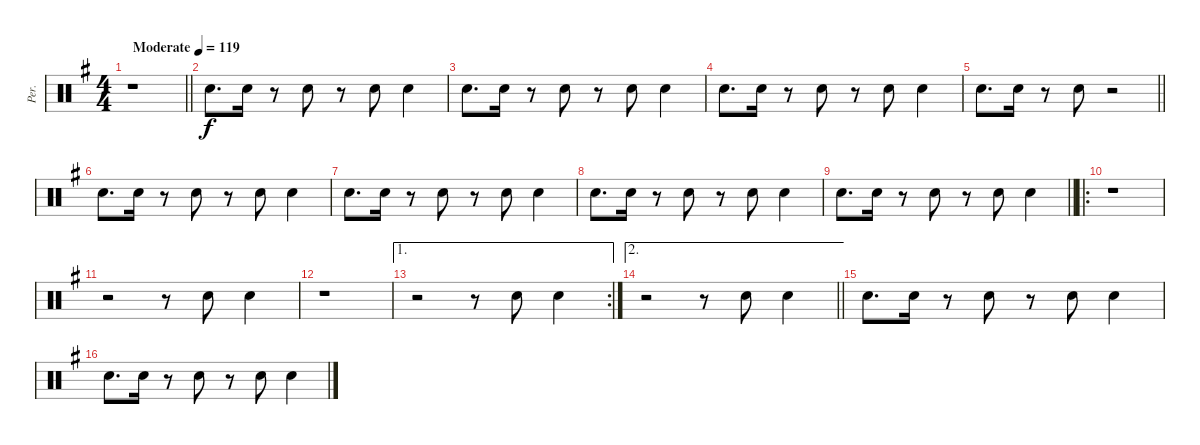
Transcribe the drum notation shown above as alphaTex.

\track ("Per." "Per.") {instrument percussion}
\staff {score}
\articulation defaults
\ts (4 4)
\tempo (119 "Moderate")
\clef neutral
\barLineRight lightlight
\ks eminor
r.1{dy f} |
"Hand Clap (hit)".8{d} "Hand Clap (hit)".16 r.8 "Hand Clap (hit)".8 r.8 "Hand Clap (hit)".8 "Hand Clap (hit)".4 |
"Hand Clap (hit)".8{d} "Hand Clap (hit)".16 r.8 "Hand Clap (hit)".8 r.8 "Hand Clap (hit)".8 "Hand Clap (hit)".4 |
"Hand Clap (hit)".8{d} "Hand Clap (hit)".16 r.8 "Hand Clap (hit)".8 r.8 "Hand Clap (hit)".8 "Hand Clap (hit)".4 |
\barLineRight lightlight "Hand Clap (hit)".8{d} "Hand Clap (hit)".16
r.8 "Hand Clap (hit)".8 r.2 |
"Hand Clap (hit)".8{d} "Hand Clap (hit)".16 r.8 "Hand Clap (hit)".8 r.8 "Hand Clap (hit)".8 "Hand Clap (hit)".4 |
"Hand Clap (hit)".8{d} "Hand Clap (hit)".16 r.8 "Hand Clap (hit)".8 r.8 "Hand Clap (hit)".8 "Hand Clap (hit)".4 |
"Hand Clap (hit)".8{d} "Hand Clap (hit)".16 r.8 "Hand Clap (hit)".8 r.8 "Hand Clap (hit)".8 "Hand Clap (hit)".4 |
\barLineRight lightlight "Hand Clap (hit)".8{d} "Hand Clap (hit)".16
r.8 "Hand Clap (hit)".8 r.8 "Hand Clap (hit)".8 "Hand Clap (hit)".4 |
\ro
r.1 |
r.2 r.8 "Hand Clap (hit)".8 "Hand Clap (hit)".4 |
r.1 |
\ae 1
\rc 2
r.2 r.8 "Hand Clap (hit)".8 "Hand Clap (hit)".4 |
\ae 2
\barLineRight lightlight
r.2 r.8 "Hand Clap (hit)".8 "Hand Clap (hit)".4 |
"Hand Clap (hit)".8{d} "Hand Clap (hit)".16 r.8 "Hand Clap (hit)".8 r.8 "Hand Clap (hit)".8 "Hand Clap (hit)".4 |
"Hand Clap (hit)".8{d} "Hand Clap (hit)".16 r.8 "Hand Clap (hit)".8 r.8 "Hand Clap (hit)".8 "Hand Clap (hit)".4
